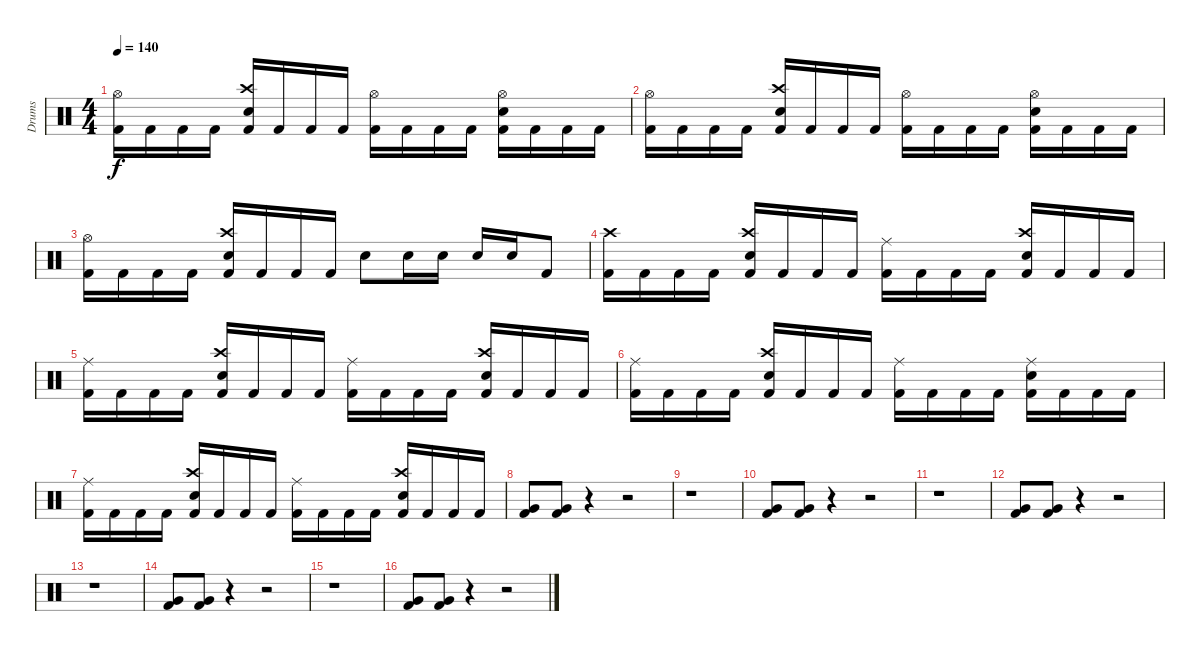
\track ("Drums" "Drums") {instrument percussion}
\staff {score}
\articulation defaults
\ts (4 4)
\tempo 140
\clef neutral
\ks c
("Hi-Hat (open)" "Kick (hit) 2").16{dy f} "Kick (hit) 2".16 "Kick (hit) 2".16 "Kick (hit) 2".16 ("Crash high (hit)" "Electric Snare (hit)" "Kick (hit) 2").16 "Kick (hit) 2".16 "Kick (hit) 2".16 "Kick (hit) 2".16 ("Hi-Hat (open)" "Kick (hit) 2").16 "Kick (hit) 2".16 "Kick (hit) 2".16 "Kick (hit) 2".16 ("Hi-Hat (open)" "Electric Snare (hit)" "Kick (hit) 2").16 "Kick (hit) 2".16 "Kick (hit) 2".16 "Kick (hit) 2".16 |
("Hi-Hat (open)" "Kick (hit) 2").16 "Kick (hit) 2".16 "Kick (hit) 2".16 "Kick (hit) 2".16 ("Crash high (hit)" "Electric Snare (hit)" "Kick (hit) 2").16 "Kick (hit) 2".16 "Kick (hit) 2".16 "Kick (hit) 2".16 ("Hi-Hat (open)" "Kick (hit) 2").16 "Kick (hit) 2".16 "Kick (hit) 2".16 "Kick (hit) 2".16 ("Hi-Hat (open)" "Electric Snare (hit)" "Kick (hit) 2").16 "Kick (hit) 2".16 "Kick (hit) 2".16 "Kick (hit) 2".16 |
("Hi-Hat (open)" "Kick (hit) 2").16 "Kick (hit) 2".16 "Kick (hit) 2".16 "Kick (hit) 2".16 ("Crash high (hit)" "Electric Snare (hit)" "Kick (hit) 2").16 "Kick (hit) 2".16 "Kick (hit) 2".16 "Kick (hit) 2".16 "Electric Snare (hit)".8 "Electric Snare (hit)".16 "Electric Snare (hit)".16 "Electric Snare (hit)".16 "Electric Snare (hit)".16 "Kick (hit) 2".8 |
("Crash high (hit)" "Kick (hit) 2").16 "Kick (hit) 2".16 "Kick (hit) 2".16 "Kick (hit) 2".16 ("Crash high (hit)" "Electric Snare (hit)" "Kick (hit) 2").16 "Kick (hit) 2".16 "Kick (hit) 2".16 "Kick (hit) 2".16 ("Ride (middle)" "Kick (hit) 2").16 "Kick (hit) 2".16 "Kick (hit) 2".16 "Kick (hit) 2".16 ("Crash high (hit)" "Electric Snare (hit)" "Kick (hit) 2").16 "Kick (hit) 2".16 "Kick (hit) 2".16 "Kick (hit) 2".16 |
("Ride (middle)" "Kick (hit) 2").16 "Kick (hit) 2".16 "Kick (hit) 2".16 "Kick (hit) 2".16 ("Crash high (hit)" "Electric Snare (hit)" "Kick (hit) 2").16 "Kick (hit) 2".16 "Kick (hit) 2".16 "Kick (hit) 2".16 ("Ride (middle)" "Kick (hit) 2").16 "Kick (hit) 2".16 "Kick (hit) 2".16 "Kick (hit) 2".16 ("Crash high (hit)" "Electric Snare (hit)" "Kick (hit) 2").16 "Kick (hit) 2".16 "Kick (hit) 2".16 "Kick (hit) 2".16 |
("Ride (middle)" "Kick (hit) 2").16 "Kick (hit) 2".16 "Kick (hit) 2".16 "Kick (hit) 2".16 ("Crash high (hit)" "Electric Snare (hit)" "Kick (hit) 2").16 "Kick (hit) 2".16 "Kick (hit) 2".16 "Kick (hit) 2".16 ("Ride (middle)" "Kick (hit) 2").16 "Kick (hit) 2".16 "Kick (hit) 2".16 "Kick (hit) 2".16 ("Ride (middle)" "Electric Snare (hit)" "Kick (hit) 2").16 "Kick (hit) 2".16 "Kick (hit) 2".16 "Kick (hit) 2".16 |
("Ride (middle)" "Kick (hit) 2").16 "Kick (hit) 2".16 "Kick (hit) 2".16 "Kick (hit) 2".16 ("Crash high (hit)" "Electric Snare (hit)" "Kick (hit) 2").16 "Kick (hit) 2".16 "Kick (hit) 2".16 "Kick (hit) 2".16 ("Ride (middle)" "Kick (hit) 2").16 "Kick (hit) 2".16 "Kick (hit) 2".16 "Kick (hit) 2".16 ("Crash high (hit)" "Electric Snare (hit)" "Kick (hit) 2").16 "Kick (hit) 2".16 "Kick (hit) 2".16 "Kick (hit) 2".16 |
("Very Low Tom (hit)" "Kick (hit) 2").8 ("Very Low Tom (hit)" "Kick (hit) 2").8 r.4 r.2 |
r.1 |
("Very Low Tom (hit)" "Kick (hit) 2").8 ("Very Low Tom (hit)" "Kick (hit) 2").8 r.4 r.2 |
r.1 |
("Very Low Tom (hit)" "Kick (hit) 2").8 ("Very Low Tom (hit)" "Kick (hit) 2").8 r.4 r.2 |
r.1 |
("Very Low Tom (hit)" "Kick (hit) 2").8 ("Very Low Tom (hit)" "Kick (hit) 2").8 r.4 r.2 |
r.1 |
("Very Low Tom (hit)" "Kick (hit) 2").8 ("Very Low Tom (hit)" "Kick (hit) 2").8 r.4 r.2
